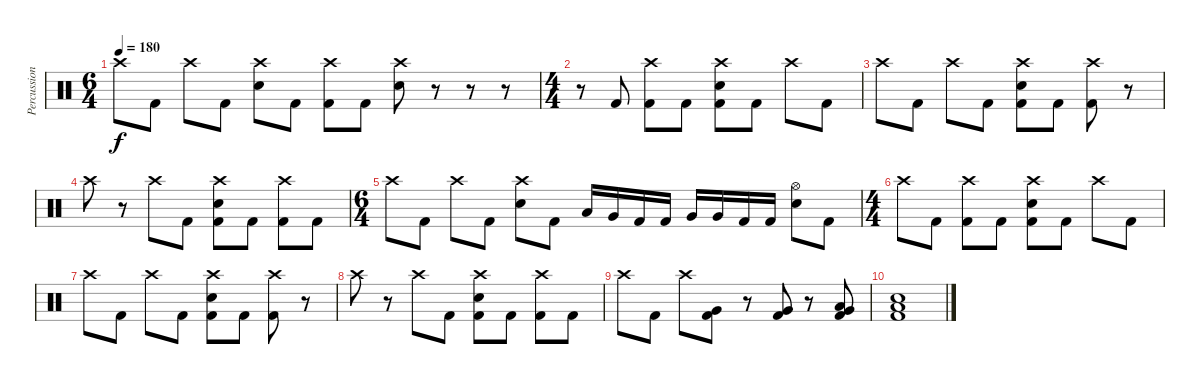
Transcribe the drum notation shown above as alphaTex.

\track ("Percussion" "Percussion") {instrument percussion}
\staff {score}
\articulation defaults
\ts (6 4)
\tempo 180
\clef neutral
\ks c "Crash high (hit)".8{dy f} "Kick (hit) 2".8 "Crash high (hit)".8 "Kick (hit) 2".8
("Crash high (hit)" "Electric Snare (hit)").8 "Kick (hit) 2".8 ("Crash high (hit)" "Kick (hit) 2").8 "Kick (hit) 2".8 ("Crash high (hit)" "Electric Snare (hit)").8 r.8 r.8 r.8 |
\ts (4 4)
r.8 "Kick (hit) 2".8 ("Crash high (hit)" "Kick (hit) 2").8 "Kick (hit) 2".8 ("Crash high (hit)" "Electric Snare (hit)" "Kick (hit) 2").8 "Kick (hit) 2".8 "Crash high (hit)".8 "Kick (hit) 2".8 |
"Crash high (hit)".8 "Kick (hit) 2".8 "Crash high (hit)".8 "Kick (hit) 2".8 ("Crash high (hit)" "Electric Snare (hit)" "Kick (hit) 2").8 "Kick (hit) 2".8 ("Crash high (hit)" "Kick (hit) 2").8 r.8 |
"Crash high (hit)".8 r.8 "Crash high (hit)".8 "Kick (hit) 2".8 ("Crash high (hit)" "Electric Snare (hit)" "Kick (hit) 2").8 "Kick (hit) 2".8 ("Crash high (hit)" "Kick (hit) 2").8 "Kick (hit) 2".8 |
\ts (6 4)
"Crash high (hit)".8 "Kick (hit) 2".8 "Crash high (hit)".8 "Kick (hit) 2".8 ("Crash high (hit)" "Electric Snare (hit)").8 "Kick (hit) 2".8 "Low Tom (hit)".16 "Very Low Tom (hit)".16 "Kick (hit) 2".16 "Kick (hit) 2".16 "Very Low Tom (hit)".16 "Very Low Tom (hit)".16 "Kick (hit) 2".16 "Kick (hit) 2".16 ("Hi-Hat (open)" "Electric Snare (hit)").8 "Kick (hit) 2".8 |
\ts (4 4)
"Crash high (hit)".8 "Kick (hit) 2".8 ("Crash high (hit)" "Kick (hit) 2").8 "Kick (hit) 2".8 ("Crash high (hit)" "Electric Snare (hit)" "Kick (hit) 2").8 "Kick (hit) 2".8 "Crash high (hit)".8 "Kick (hit) 2".8 |
"Crash high (hit)".8 "Kick (hit) 2".8 "Crash high (hit)".8 "Kick (hit) 2".8 ("Crash high (hit)" "Electric Snare (hit)" "Kick (hit) 2").8 "Kick (hit) 2".8 ("Crash high (hit)" "Kick (hit) 2").8 r.8 |
"Crash high (hit)".8 r.8 "Crash high (hit)".8 "Kick (hit) 2".8 ("Crash high (hit)" "Electric Snare (hit)" "Kick (hit) 2").8 "Kick (hit) 2".8 ("Crash high (hit)" "Kick (hit) 2").8 "Kick (hit) 2".8 |
"Crash high (hit)".8 "Kick (hit) 2".8 "Crash high (hit)".8 ("Very Low Tom (hit)" "Kick (hit) 2").8 r.8 ("Very Low Tom (hit)" "Kick (hit) 2").8 r.8 ("Low Floor Tom (hit)" "Very Low Tom (hit)" "Kick (hit) 2").8 |
("Low Floor Tom (hit)" "Electric Snare (hit)" "Kick (hit) 2").1
